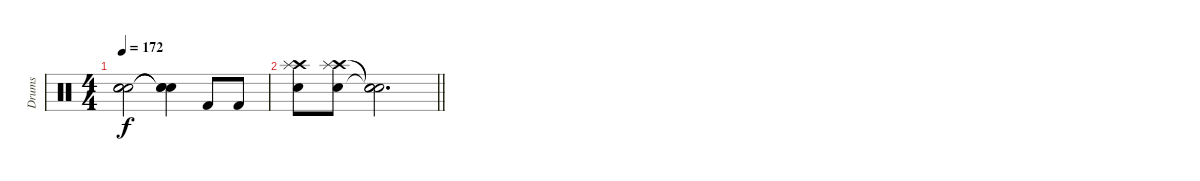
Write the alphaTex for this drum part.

\track ("Drums" "Drums") {instrument percussion}
\staff {score}
\articulation defaults
\ts (4 4)
\tempo 172
\clef neutral
\ks c
("Snare (hit)"{t} "Snare (hit)"{t} "Snare (hit)"{t}).2{dy f} ("Snare (hit)"{t} "Snare (hit)"{t} "Snare (hit)"{t}).4 "Kick (hit) 2".8 "Kick (hit) 2".8 |
\barLineRight lightlight
("Crash high (hit)" "Splash (hit)" "Electric Snare (hit)").8 ("Crash high (hit)" "Splash (hit)" "Electric Snare (hit)").8 ("Snare (hit)"{t} "Snare (hit)"{t} "Snare (hit)"{t}).2{d}
